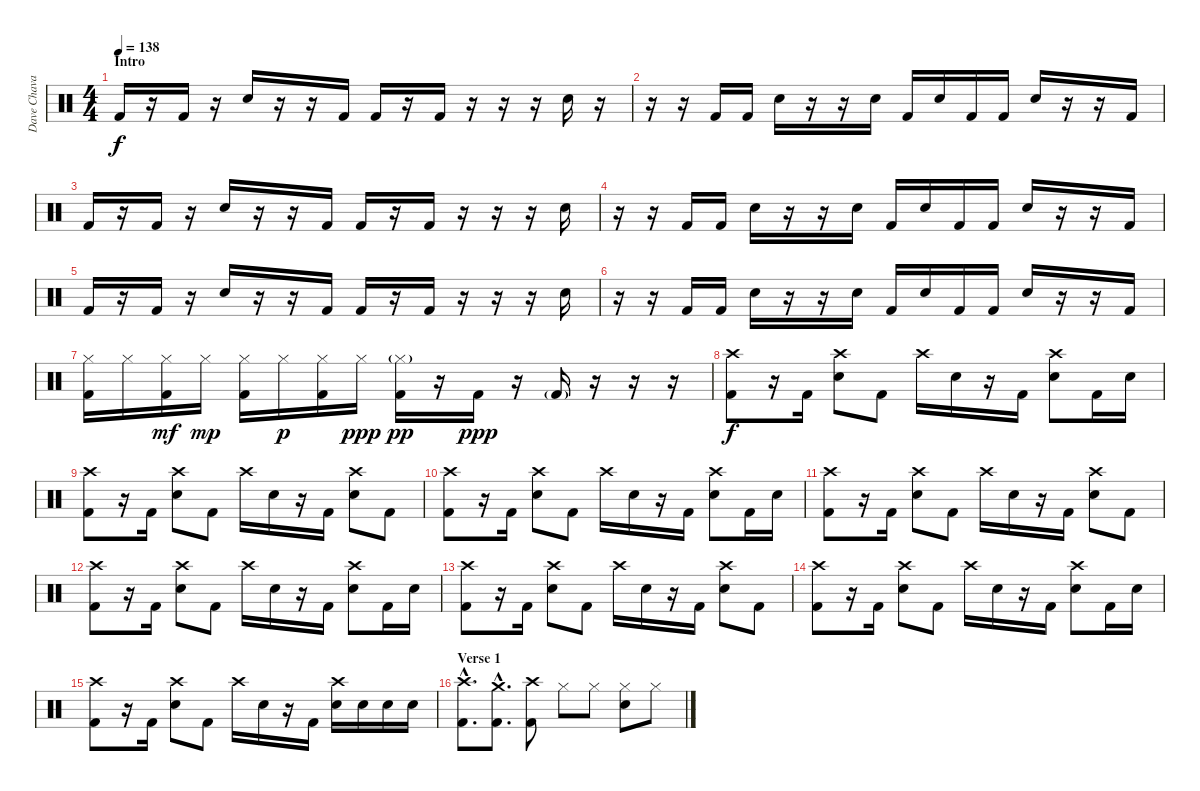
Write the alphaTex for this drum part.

\track ("Dave Chavarri - Drums" "Dave Chava") {instrument percussion}
\staff {score}
\articulation defaults
\ts (4 4)
\section ("" "Intro")
\tempo 138
\clef neutral
\ks c "Kick (hit) 2".16{dy f}
r.16 "Kick (hit) 2".16 r.16 "Electric Snare (hit)".16 r.16 r.16 "Kick (hit) 2".16 "Kick (hit) 2".16 r.16 "Kick (hit) 2".16 r.16 r.16 r.16 "Electric Snare (hit)".16 r.16 |
r.16 r.16 "Kick (hit) 2".16 "Kick (hit) 2".16 "Electric Snare (hit)".16 r.16 r.16 "Electric Snare (hit)".16 "Kick (hit) 2".16 "Electric Snare (hit)".16 "Kick (hit) 2".16 "Kick (hit) 2".16 "Electric Snare (hit)".16 r.16 r.16 "Kick (hit) 2".16 |
"Kick (hit) 2".16 r.16 "Kick (hit) 2".16 r.16 "Electric Snare (hit)".16 r.16 r.16 "Kick (hit) 2".16 "Kick (hit) 2".16 r.16 "Kick (hit) 2".16 r.16 r.16 r.16 "Electric Snare (hit)".16 |
r.16 r.16 "Kick (hit) 2".16 "Kick (hit) 2".16 "Electric Snare (hit)".16 r.16 r.16 "Electric Snare (hit)".16 "Kick (hit) 2".16 "Electric Snare (hit)".16 "Kick (hit) 2".16 "Kick (hit) 2".16 "Electric Snare (hit)".16 r.16 r.16 "Kick (hit) 2".16 |
"Kick (hit) 2".16 r.16 "Kick (hit) 2".16 r.16 "Electric Snare (hit)".16 r.16 r.16 "Kick (hit) 2".16 "Kick (hit) 2".16 r.16 "Kick (hit) 2".16 r.16 r.16 r.16 "Electric Snare (hit)".16 |
r.16 r.16 "Kick (hit) 2".16 "Kick (hit) 2".16 "Electric Snare (hit)".16 r.16 r.16 "Electric Snare (hit)".16 "Kick (hit) 2".16 "Electric Snare (hit)".16 "Kick (hit) 2".16 "Kick (hit) 2".16 "Electric Snare (hit)".16 r.16 r.16 "Kick (hit) 2".16 |
("Hi-Hat (closed)" "Kick (hit) 2").16 "Hi-Hat (closed)".16 ("Hi-Hat (closed)" "Kick (hit) 2").16{dy mf} "Hi-Hat (closed)".16{dy mp} ("Hi-Hat (closed)" "Kick (hit) 2").16 "Hi-Hat (closed)".16{dy p} ("Hi-Hat (closed)" "Kick (hit) 2").16 "Hi-Hat (closed)".16{dy ppp} ("Hi-Hat (closed)"{g} "Kick (hit) 2").16{dy pp} r.16 "Kick (hit) 2".16{dy ppp} r.16 "Kick (hit) 2"{g}.16 r.16 r.16 r.16 |
("Crash high (hit)" "Kick (hit) 2").8{dy f} r.16 "Kick (hit) 2".16 ("Crash high (hit)" "Electric Snare (hit)").8 "Kick (hit) 2".8 "Crash high (hit)".16 "Electric Snare (hit)".16 r.16 "Kick (hit) 2".16 ("Crash high (hit)" "Electric Snare (hit)").8 "Kick (hit) 2".16 "Electric Snare (hit)".16 |
("Crash high (hit)" "Kick (hit) 2").8 r.16 "Kick (hit) 2".16 ("Crash high (hit)" "Electric Snare (hit)").8 "Kick (hit) 2".8 "Crash high (hit)".16 "Electric Snare (hit)".16 r.16 "Kick (hit) 2".16 ("Crash high (hit)" "Electric Snare (hit)").8 "Kick (hit) 2".8 |
("Crash high (hit)" "Kick (hit) 2").8 r.16 "Kick (hit) 2".16 ("Crash high (hit)" "Electric Snare (hit)").8 "Kick (hit) 2".8 "Crash high (hit)".16 "Electric Snare (hit)".16 r.16 "Kick (hit) 2".16 ("Crash high (hit)" "Electric Snare (hit)").8 "Kick (hit) 2".16 "Electric Snare (hit)".16 |
("Crash high (hit)" "Kick (hit) 2").8 r.16 "Kick (hit) 2".16 ("Crash high (hit)" "Electric Snare (hit)").8 "Kick (hit) 2".8 "Crash high (hit)".16 "Electric Snare (hit)".16 r.16 "Kick (hit) 2".16 ("Crash high (hit)" "Electric Snare (hit)").8 "Kick (hit) 2".8 |
("Crash high (hit)" "Kick (hit) 2").8 r.16 "Kick (hit) 2".16 ("Crash high (hit)" "Electric Snare (hit)").8 "Kick (hit) 2".8 "Crash high (hit)".16 "Electric Snare (hit)".16 r.16 "Kick (hit) 2".16 ("Crash high (hit)" "Electric Snare (hit)").8 "Kick (hit) 2".16 "Electric Snare (hit)".16 |
("Crash high (hit)" "Kick (hit) 2").8 r.16 "Kick (hit) 2".16 ("Crash high (hit)" "Electric Snare (hit)").8 "Kick (hit) 2".8 "Crash high (hit)".16 "Electric Snare (hit)".16 r.16 "Kick (hit) 2".16 ("Crash high (hit)" "Electric Snare (hit)").8 "Kick (hit) 2".8 |
("Crash high (hit)" "Kick (hit) 2").8 r.16 "Kick (hit) 2".16 ("Crash high (hit)" "Electric Snare (hit)").8 "Kick (hit) 2".8 "Crash high (hit)".16 "Electric Snare (hit)".16 r.16 "Kick (hit) 2".16 ("Crash high (hit)" "Electric Snare (hit)").8 "Kick (hit) 2".16 "Electric Snare (hit)".16 |
("Crash high (hit)" "Kick (hit) 2").8 r.16 "Kick (hit) 2".16 ("Crash high (hit)" "Electric Snare (hit)").8 "Kick (hit) 2".8 "Crash high (hit)".16 "Electric Snare (hit)".16 r.16 "Kick (hit) 2".16 ("Crash high (hit)" "Electric Snare (hit)").16 "Electric Snare (hit)".16 "Electric Snare (hit)".16 "Electric Snare (hit)".16 |
\section ("" "Verse 1")
("Crash high (hit)"{hac} "Kick (hit) 2"{hac}).8{d} ("Crash medium (hit)"{hac} "Kick (hit) 2"{hac}).8{d} ("Crash high (hit)" "Kick (hit) 2").8 "Hi-Hat (closed)".8 "Hi-Hat (closed)".8 ("Hi-Hat (closed)" "Electric Snare (hit)").8 "Hi-Hat (closed)".8
